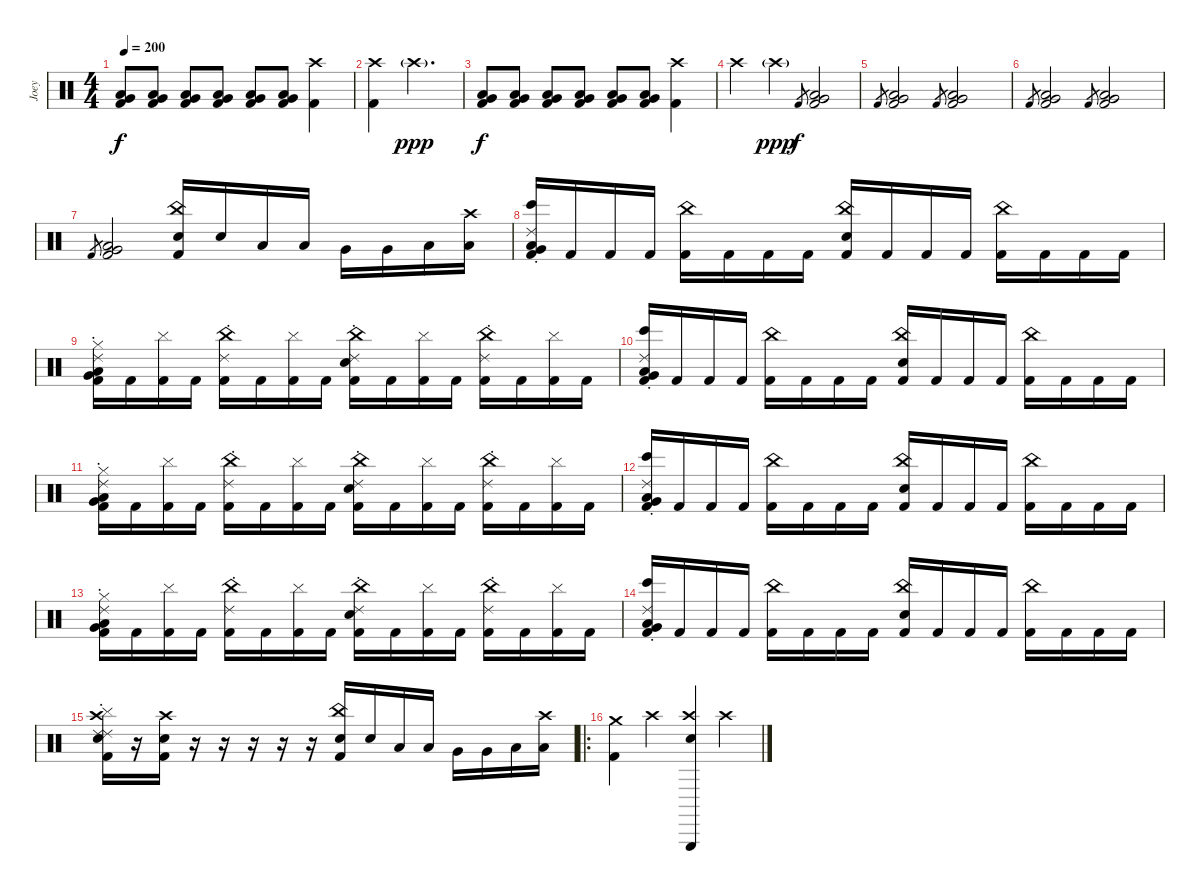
\track ("Joey" "Joey") {instrument percussion}
\staff {score}
\articulation defaults
\ts (4 4)
\tempo 200
\clef neutral
\ks c
("Low Tom (hit)" "Very Low Tom (hit)" "Kick (hit) 2").8{dy f} ("Low Tom (hit)" "Very Low Tom (hit)" "Kick (hit) 2").8 ("Low Tom (hit)" "Very Low Tom (hit)" "Kick (hit) 2").8 ("Low Tom (hit)" "Very Low Tom (hit)" "Kick (hit) 2").8 ("Low Tom (hit)" "Very Low Tom (hit)" "Kick (hit) 2").8 ("Low Tom (hit)" "Very Low Tom (hit)" "Kick (hit) 2").8 ("Crash high (hit)" "Kick (hit) 2").4 |
("Crash high (hit)" "Kick (hit) 2").4 "Crash high (hit)"{g}.2{d dy ppp} |
("Low Tom (hit)" "Very Low Tom (hit)" "Kick (hit) 2").8{dy f} ("Low Tom (hit)" "Very Low Tom (hit)" "Kick (hit) 2").8 ("Low Tom (hit)" "Very Low Tom (hit)" "Kick (hit) 2").8 ("Low Tom (hit)" "Very Low Tom (hit)" "Kick (hit) 2").8 ("Low Tom (hit)" "Very Low Tom (hit)" "Kick (hit) 2").8 ("Low Tom (hit)" "Very Low Tom (hit)" "Kick (hit) 2").8 ("Crash high (hit)" "Kick (hit) 2").4 |
"Crash high (hit)".4 "Crash high (hit)"{g}.4{dy ppp} "Kick (hit) 2".8{gr dy f} ("Low Tom (hit)" "Very Low Tom (hit)" "Kick (hit) 2").2 |
"Kick (hit) 2".8{gr} ("Low Tom (hit)" "Very Low Tom (hit)" "Kick (hit) 2").2 "Kick (hit) 2".8{gr} ("Low Tom (hit)" "Very Low Tom (hit)" "Kick (hit) 2").2 |
"Kick (hit) 2".8{gr} ("Low Tom (hit)" "Very Low Tom (hit)" "Kick (hit) 2").2 "Kick (hit) 2".8{gr} ("Low Tom (hit)" "Very Low Tom (hit)" "Kick (hit) 2").2 |
"Kick (hit) 2".8{gr} ("Low Tom (hit)" "Very Low Tom (hit)" "Kick (hit) 2").2 ("China (hit)" "Electric Snare (hit)" "Kick (hit) 2").16 "Electric Snare (hit)".16 "Low Tom (hit)".16 "Low Tom (hit)".16 "Very Low Tom (hit)".16 "Very Low Tom (hit)".16 "Low Floor Tom (hit)".16 ("Crash high (hit)" "Low Floor Tom (hit)").16 |
("Bongo High (hit)" "Ride (choke) 2" "Very Low Tom (hit)" "Low Tom (hit)" "Kick (hit) 2").16 "Kick (hit) 2".16 "Kick (hit) 2".16 "Kick (hit) 2".16 ("China (hit)" "Kick (hit) 2").16 "Kick (hit) 2".16 "Kick (hit) 2".16 "Kick (hit) 2".16 ("China (hit)" "Electric Snare (hit)" "Kick (hit) 2").16 "Kick (hit) 2".16 "Kick (hit) 2".16 "Kick (hit) 2".16 ("China (hit)" "Kick (hit) 2").16 "Kick (hit) 2".16 "Kick (hit) 2".16 "Kick (hit) 2".16 |
("Hi-Hat (closed)" "Ride (choke) 2" "Very Low Tom (hit)" "Low Tom (hit)" "Kick (hit) 2").16 "Kick (hit) 2".16 ("Cymbal (hit)" "Kick (hit) 2").16 "Kick (hit) 2".16 ("Ride (choke) 2" "China (hit)" "Kick (hit) 2").16 "Kick (hit) 2".16 ("Cymbal (hit)" "Kick (hit) 2").16 "Kick (hit) 2".16 ("Ride (choke) 2" "China (hit)" "Electric Snare (hit)" "Kick (hit) 2").16 "Kick (hit) 2".16 ("Cymbal (hit)" "Kick (hit) 2").16 "Kick (hit) 2".16 ("Ride (choke) 2" "China (hit)" "Kick (hit) 2").16 "Kick (hit) 2".16 ("Cymbal (hit)" "Kick (hit) 2").16 "Kick (hit) 2".16 |
("Bongo High (hit)" "Ride (choke) 2" "Very Low Tom (hit)" "Low Tom (hit)" "Kick (hit) 2").16 "Kick (hit) 2".16 "Kick (hit) 2".16 "Kick (hit) 2".16 ("China (hit)" "Kick (hit) 2").16 "Kick (hit) 2".16 "Kick (hit) 2".16 "Kick (hit) 2".16 ("China (hit)" "Electric Snare (hit)" "Kick (hit) 2").16 "Kick (hit) 2".16 "Kick (hit) 2".16 "Kick (hit) 2".16 ("China (hit)" "Kick (hit) 2").16 "Kick (hit) 2".16 "Kick (hit) 2".16 "Kick (hit) 2".16 |
("Hi-Hat (closed)" "Ride (choke) 2" "Very Low Tom (hit)" "Low Tom (hit)" "Kick (hit) 2").16 "Kick (hit) 2".16 ("Cymbal (hit)" "Kick (hit) 2").16 "Kick (hit) 2".16 ("Ride (choke) 2" "China (hit)" "Kick (hit) 2").16 "Kick (hit) 2".16 ("Cymbal (hit)" "Kick (hit) 2").16 "Kick (hit) 2".16 ("Ride (choke) 2" "China (hit)" "Electric Snare (hit)" "Kick (hit) 2").16 "Kick (hit) 2".16 ("Cymbal (hit)" "Kick (hit) 2").16 "Kick (hit) 2".16 ("Ride (choke) 2" "China (hit)" "Kick (hit) 2").16 "Kick (hit) 2".16 ("Cymbal (hit)" "Kick (hit) 2").16 "Kick (hit) 2".16 |
("Bongo High (hit)" "Ride (choke) 2" "Very Low Tom (hit)" "Low Tom (hit)" "Kick (hit) 2").16 "Kick (hit) 2".16 "Kick (hit) 2".16 "Kick (hit) 2".16 ("China (hit)" "Kick (hit) 2").16 "Kick (hit) 2".16 "Kick (hit) 2".16 "Kick (hit) 2".16 ("China (hit)" "Electric Snare (hit)" "Kick (hit) 2").16 "Kick (hit) 2".16 "Kick (hit) 2".16 "Kick (hit) 2".16 ("China (hit)" "Kick (hit) 2").16 "Kick (hit) 2".16 "Kick (hit) 2".16 "Kick (hit) 2".16 |
("Hi-Hat (closed)" "Ride (choke) 2" "Very Low Tom (hit)" "Low Tom (hit)" "Kick (hit) 2").16 "Kick (hit) 2".16 ("Cymbal (hit)" "Kick (hit) 2").16 "Kick (hit) 2".16 ("Ride (choke) 2" "China (hit)" "Kick (hit) 2").16 "Kick (hit) 2".16 ("Cymbal (hit)" "Kick (hit) 2").16 "Kick (hit) 2".16 ("Ride (choke) 2" "China (hit)" "Electric Snare (hit)" "Kick (hit) 2").16 "Kick (hit) 2".16 ("Cymbal (hit)" "Kick (hit) 2").16 "Kick (hit) 2".16 ("Ride (choke) 2" "China (hit)" "Kick (hit) 2").16 "Kick (hit) 2".16 ("Cymbal (hit)" "Kick (hit) 2").16 "Kick (hit) 2".16 |
("Bongo High (hit)" "Ride (choke) 2" "Very Low Tom (hit)" "Low Tom (hit)" "Kick (hit) 2").16 "Kick (hit) 2".16 "Kick (hit) 2".16 "Kick (hit) 2".16 ("China (hit)" "Kick (hit) 2").16 "Kick (hit) 2".16 "Kick (hit) 2".16 "Kick (hit) 2".16 ("China (hit)" "Electric Snare (hit)" "Kick (hit) 2").16 "Kick (hit) 2".16 "Kick (hit) 2".16 "Kick (hit) 2".16 ("China (hit)" "Kick (hit) 2").16 "Kick (hit) 2".16 "Kick (hit) 2".16 "Kick (hit) 2".16 |
("Crash high (hit)" "Ride (choke) 2" "Cymbal (hit)" "Electric Snare (hit)" "Ride (choke) 2" "Kick (hit) 2").16 r.16 ("Crash high (hit)" "Electric Snare (hit)" "Kick (hit) 2").16 r.16 r.16 r.16 r.16 r.16 ("China (hit)" "Electric Snare (hit)" "Kick (hit) 2").16 "Electric Snare (hit)".16 "Low Tom (hit)".16 "Low Tom (hit)".16 "Very Low Tom (hit)".16 "Very Low Tom (hit)".16 "Low Floor Tom (hit)".16 ("Crash high (hit)" "Low Floor Tom (hit)").16 |
\ro
("Crash medium (hit)" "Kick (hit) 2").4 "Crash high (hit)".4 ("Crash high (hit)" "Triangle (hit)" "Electric Snare (hit)").4 "Crash high (hit)".4
